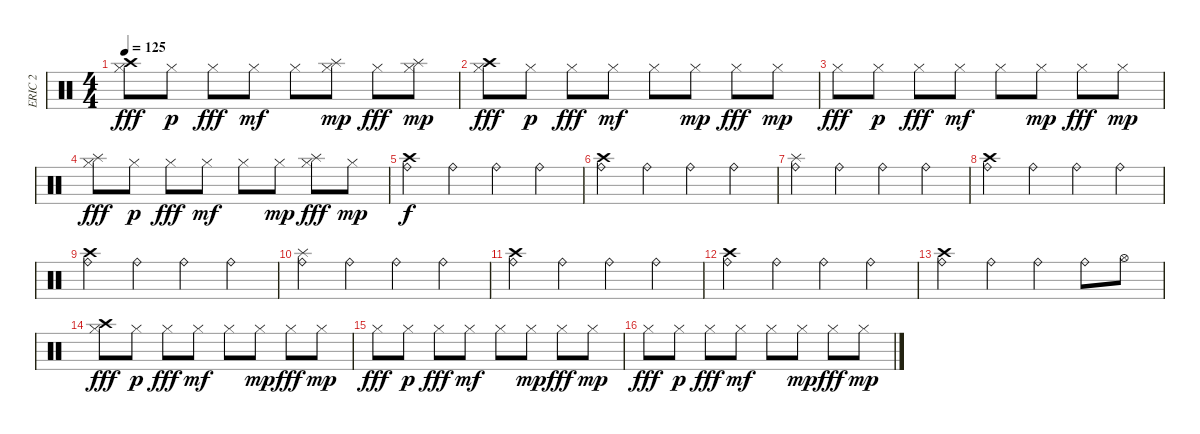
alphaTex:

\track ("ERIC 2" "ERIC 2") {instrument percussion}
\staff {score}
\articulation defaults
\ts (4 4)
\tempo 125
\clef neutral
\ks c
("Crash high (hit)" "Hi-Hat (closed)").8{dy fff} "Hi-Hat (closed)".8{dy p} "Hi-Hat (closed)".8{dy fff} "Hi-Hat (closed)".8{dy mf} "Hi-Hat (closed)".8 ("Splash (hit)" "Hi-Hat (closed)").8{dy mp} "Hi-Hat (closed)".8{dy fff} ("Splash (hit)" "Hi-Hat (closed)").8{dy mp} |
("Crash high (hit)" "Hi-Hat (closed)").8{dy fff} "Hi-Hat (closed)".8{dy p} "Hi-Hat (closed)".8{dy fff} "Hi-Hat (closed)".8{dy mf} "Hi-Hat (closed)".8 "Hi-Hat (closed)".8{dy mp} "Hi-Hat (closed)".8{dy fff} "Hi-Hat (closed)".8{dy mp} |
"Hi-Hat (closed)".8{dy fff} "Hi-Hat (closed)".8{dy p} "Hi-Hat (closed)".8{dy fff} "Hi-Hat (closed)".8{dy mf} "Hi-Hat (closed)".8 "Hi-Hat (closed)".8{dy mp} "Hi-Hat (closed)".8{dy fff} "Hi-Hat (closed)".8{dy mp} |
("Splash (hit)" "Hi-Hat (closed)").8{dy fff} "Hi-Hat (closed)".8{dy p} "Hi-Hat (closed)".8{dy fff} "Hi-Hat (closed)".8{dy mf} "Hi-Hat (closed)".8 "Hi-Hat (closed)".8{dy mp} ("Splash (hit)" "Hi-Hat (closed)").8{dy fff} "Hi-Hat (closed)".8{dy mp} |
("Crash high (hit)" "Ride (bell)").4{dy f} "Ride (bell)".4 "Ride (bell)".4 "Ride (bell)".4 |
("Crash high (hit)" "Ride (bell)").4 "Ride (bell)".4 "Ride (bell)".4 "Ride (bell)".4 |
("Splash (hit)" "Ride (bell)").4 "Ride (bell)".4 "Ride (bell)".4 "Ride (bell)".4 |
("Crash high (hit)" "Ride (bell)").4 "Ride (bell)".4 "Ride (bell)".4 "Ride (bell)".4 |
("Crash high (hit)" "Ride (bell)").4 "Ride (bell)".4 "Ride (bell)".4 "Ride (bell)".4 |
("Splash (hit)" "Ride (bell)").4 "Ride (bell)".4 "Ride (bell)".4 "Ride (bell)".4 |
("Crash high (hit)" "Ride (bell)").4 "Ride (bell)".4 "Ride (bell)".4 "Ride (bell)".4 |
("Crash high (hit)" "Ride (bell)").4 "Ride (bell)".4 "Ride (bell)".4 "Ride (bell)".4 |
("Crash high (hit)" "Ride (bell)").4 "Ride (bell)".4 "Ride (bell)".4 "Ride (bell)".8 "Hi-Hat (open)".8 |
("Crash high (hit)" "Hi-Hat (closed)").8{dy fff} "Hi-Hat (closed)".8{dy p} "Hi-Hat (closed)".8{dy fff} "Hi-Hat (closed)".8{dy mf} "Hi-Hat (closed)".8 "Hi-Hat (closed)".8{dy mp} "Hi-Hat (closed)".8{dy fff} "Hi-Hat (closed)".8{dy mp} |
"Hi-Hat (closed)".8{dy fff} "Hi-Hat (closed)".8{dy p} "Hi-Hat (closed)".8{dy fff} "Hi-Hat (closed)".8{dy mf} "Hi-Hat (closed)".8 "Hi-Hat (closed)".8{dy mp} "Hi-Hat (closed)".8{dy fff} "Hi-Hat (closed)".8{dy mp} |
"Hi-Hat (closed)".8{dy fff} "Hi-Hat (closed)".8{dy p} "Hi-Hat (closed)".8{dy fff} "Hi-Hat (closed)".8{dy mf} "Hi-Hat (closed)".8 "Hi-Hat (closed)".8{dy mp} "Hi-Hat (closed)".8{dy fff} "Hi-Hat (closed)".8{dy mp}
